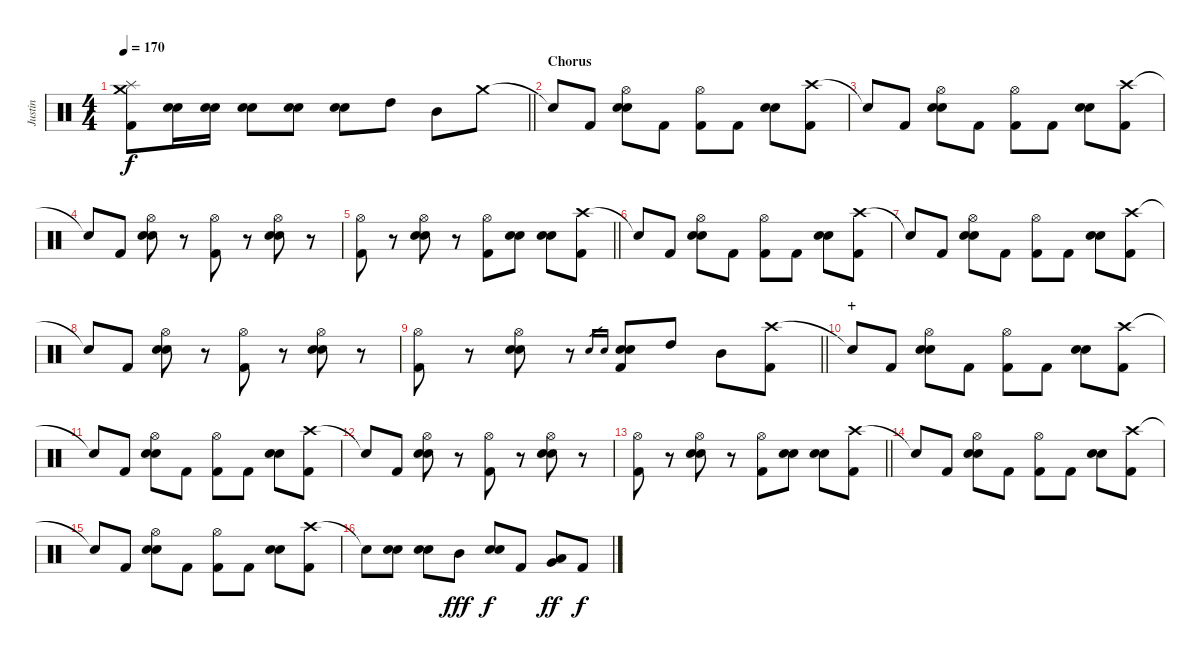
\track ("Justin" "Justin") {instrument percussion}
\staff {score}
\articulation defaults
\ts (4 4)
\tempo 170
\clef neutral
\barLineRight lightlight
\ks c
("Crash medium (hit)" "Splash (hit)" "Kick (hit) 2").8{dy f} ("Electric Snare (hit)" "Snare (hit) 2").16 ("Electric Snare (hit)" "Snare (hit) 2").16 ("Electric Snare (hit)" "Snare (hit) 2").8 ("Electric Snare (hit)" "Snare (hit) 2").8 ("Electric Snare (hit)" "Snare (hit) 2").8 "High Tom (hit)".8 "Mid Tom (hit)".8 "Crash medium (hit)".8 |
\section ("" "Chorus")
"Snare (hit)"{t}.8 "Kick (hit) 2".8 ("Hi-Hat (open)" "Electric Snare (hit)" "Snare (hit) 2").8 "Kick (hit) 2".8 ("Hi-Hat (open)" "Kick (hit) 2").8 "Kick (hit) 2".8 ("Electric Snare (hit)" "Snare (hit) 2").8 ("Crash high (hit)" "Kick (hit) 2").8 |
"Snare (hit)"{t}.8 "Kick (hit) 2".8 ("Hi-Hat (open)" "Electric Snare (hit)" "Snare (hit) 2").8 "Kick (hit) 2".8 ("Hi-Hat (open)" "Kick (hit) 2").8 "Kick (hit) 2".8 ("Electric Snare (hit)" "Snare (hit) 2").8 ("Crash high (hit)" "Kick (hit) 2").8 |
"Snare (hit)"{t}.8 "Kick (hit) 2".8 ("Hi-Hat (open)" "Electric Snare (hit)" "Snare (hit) 2").8 r.8 ("Hi-Hat (open)" "Kick (hit) 2").8 r.8 ("Hi-Hat (open)" "Electric Snare (hit)" "Snare (hit) 2").8 r.8 |
\barLineRight lightlight
("Hi-Hat (open)" "Kick (hit) 2").8 r.8 ("Hi-Hat (open)" "Electric Snare (hit)" "Snare (hit) 2").8 r.8 ("Hi-Hat (open)" "Kick (hit) 2").8 ("Electric Snare (hit)" "Snare (hit) 2").8 ("Electric Snare (hit)" "Snare (hit) 2").8 ("Crash high (hit)" "Kick (hit) 2").8 |
"Snare (hit)"{t}.8 "Kick (hit) 2".8 ("Hi-Hat (open)" "Electric Snare (hit)" "Snare (hit) 2").8 "Kick (hit) 2".8 ("Hi-Hat (open)" "Kick (hit) 2").8 "Kick (hit) 2".8 ("Electric Snare (hit)" "Snare (hit) 2").8 ("Crash high (hit)" "Kick (hit) 2").8 |
"Snare (hit)"{t}.8 "Kick (hit) 2".8 ("Hi-Hat (open)" "Electric Snare (hit)" "Snare (hit) 2").8 "Kick (hit) 2".8 ("Hi-Hat (open)" "Kick (hit) 2").8 "Kick (hit) 2".8 ("Electric Snare (hit)" "Snare (hit) 2").8 ("Crash high (hit)" "Kick (hit) 2").8 |
"Snare (hit)"{t}.8 "Kick (hit) 2".8 ("Hi-Hat (open)" "Electric Snare (hit)" "Snare (hit) 2").8 r.8 ("Hi-Hat (open)" "Kick (hit) 2").8 r.8 ("Hi-Hat (open)" "Electric Snare (hit)" "Snare (hit) 2").8 r.8 |
\barLineRight lightlight
("Hi-Hat (open)" "Kick (hit) 2").8 r.8 ("Hi-Hat (open)" "Electric Snare (hit)" "Snare (hit) 2").8 r.8 "Electric Snare (hit)".16{gr} "Snare (hit) 2".16{gr} ("Electric Snare (hit)" "Snare (hit) 2" "Kick (hit) 2").8 "High Tom (hit)".8 "Mid Tom (hit)".8 ("Crash high (hit)" "Kick (hit) 2").8 |
\section ("" "+")
"Snare (hit)"{t}.8 "Kick (hit) 2".8 ("Hi-Hat (open)" "Electric Snare (hit)" "Snare (hit) 2").8 "Kick (hit) 2".8 ("Hi-Hat (open)" "Kick (hit) 2").8 "Kick (hit) 2".8 ("Electric Snare (hit)" "Snare (hit) 2").8 ("Crash high (hit)" "Kick (hit) 2").8 |
"Snare (hit)"{t}.8 "Kick (hit) 2".8 ("Hi-Hat (open)" "Electric Snare (hit)" "Snare (hit) 2").8 "Kick (hit) 2".8 ("Hi-Hat (open)" "Kick (hit) 2").8 "Kick (hit) 2".8 ("Electric Snare (hit)" "Snare (hit) 2").8 ("Crash high (hit)" "Kick (hit) 2").8 |
"Snare (hit)"{t}.8 "Kick (hit) 2".8 ("Hi-Hat (open)" "Electric Snare (hit)" "Snare (hit) 2").8 r.8 ("Hi-Hat (open)" "Kick (hit) 2").8 r.8 ("Hi-Hat (open)" "Electric Snare (hit)" "Snare (hit) 2").8 r.8 |
\barLineRight lightlight
("Hi-Hat (open)" "Kick (hit) 2").8 r.8 ("Hi-Hat (open)" "Electric Snare (hit)" "Snare (hit) 2").8 r.8 ("Hi-Hat (open)" "Kick (hit) 2").8 ("Electric Snare (hit)" "Snare (hit) 2").8 ("Electric Snare (hit)" "Snare (hit) 2").8 ("Crash high (hit)" "Kick (hit) 2").8 |
"Snare (hit)"{t}.8 "Kick (hit) 2".8 ("Hi-Hat (open)" "Electric Snare (hit)" "Snare (hit) 2").8 "Kick (hit) 2".8 ("Hi-Hat (open)" "Kick (hit) 2").8 "Kick (hit) 2".8 ("Electric Snare (hit)" "Snare (hit) 2").8 ("Crash high (hit)" "Kick (hit) 2").8 |
"Snare (hit)"{t}.8 "Kick (hit) 2".8 ("Hi-Hat (open)" "Electric Snare (hit)" "Snare (hit) 2").8 "Kick (hit) 2".8 ("Hi-Hat (open)" "Kick (hit) 2").8 "Kick (hit) 2".8 ("Electric Snare (hit)" "Snare (hit) 2").8 ("Crash high (hit)" "Kick (hit) 2").8 |
"Snare (hit)"{t}.8 ("Electric Snare (hit)" "Snare (hit) 2").8 ("Electric Snare (hit)" "Snare (hit) 2").8 "Mid Tom (hit)".8{dy fff} ("Electric Snare (hit)" "Snare (hit) 2").8{dy f} "Kick (hit) 2".8 ("Very Low Tom (hit)" "Low Floor Tom (hit)").8{bu 240 dy ff} "Kick (hit) 2".8{dy f}
